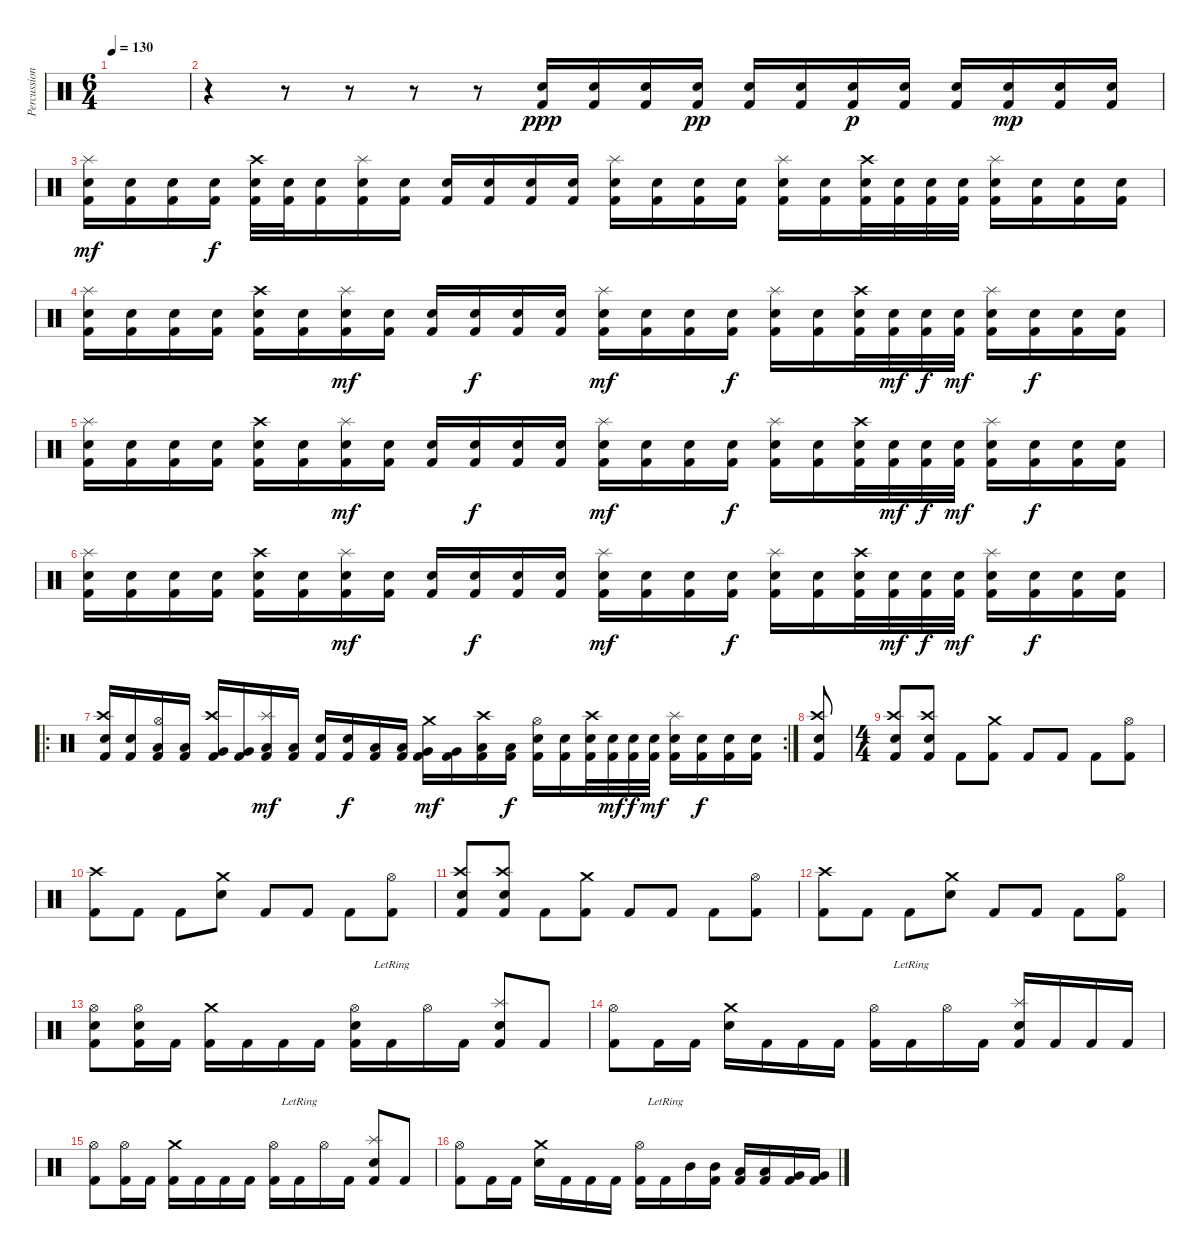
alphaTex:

\track ("Percussion" "Percussion") {instrument percussion}
\staff {score}
\articulation defaults
\ts (6 4)
\tempo 130
\clef neutral
\ks c
|
r.4 r.8 r.8 r.8 r.8 ("Electric Snare (hit)" "Kick (hit) 2").16{dy ppp} ("Electric Snare (hit)" "Kick (hit) 2").16 ("Electric Snare (hit)" "Kick (hit) 2").16 ("Electric Snare (hit)" "Kick (hit) 2").16{dy pp} ("Electric Snare (hit)" "Kick (hit) 2").16 ("Electric Snare (hit)" "Kick (hit) 2").16 ("Electric Snare (hit)" "Kick (hit) 2").16{dy p} ("Electric Snare (hit)" "Kick (hit) 2").16 ("Electric Snare (hit)" "Kick (hit) 2").16 ("Electric Snare (hit)" "Kick (hit) 2").16{dy mp} ("Electric Snare (hit)" "Kick (hit) 2").16 ("Electric Snare (hit)" "Kick (hit) 2").16 |
("Splash (hit)" "Electric Snare (hit)" "Kick (hit) 2").16{dy mf} ("Electric Snare (hit)" "Kick (hit) 2").16 ("Electric Snare (hit)" "Kick (hit) 2").16 ("Electric Snare (hit)" "Kick (hit) 2").16{dy f} ("Electric Snare (hit)" "Crash high (hit)" "Kick (hit) 2").32 ("Electric Snare (hit)" "Kick (hit) 2").32 ("Electric Snare (hit)" "Kick (hit) 2").16 ("Splash (hit)" "Electric Snare (hit)" "Kick (hit) 2").16 ("Electric Snare (hit)" "Kick (hit) 2").16 ("Electric Snare (hit)" "Kick (hit) 2").16 ("Electric Snare (hit)" "Kick (hit) 2").16 ("Electric Snare (hit)" "Kick (hit) 2").16 ("Electric Snare (hit)" "Kick (hit) 2").16 ("Splash (hit)" "Electric Snare (hit)" "Kick (hit) 2").16 ("Electric Snare (hit)" "Kick (hit) 2").16 ("Electric Snare (hit)" "Kick (hit) 2").16 ("Electric Snare (hit)" "Kick (hit) 2").16 ("Splash (hit)" "Electric Snare (hit)" "Kick (hit) 2").16 ("Electric Snare (hit)" "Kick (hit) 2").16 ("Electric Snare (hit)" "Crash high (hit)" "Kick (hit) 2").32 ("Electric Snare (hit)" "Kick (hit) 2").32 ("Electric Snare (hit)" "Kick (hit) 2").32 ("Electric Snare (hit)" "Kick (hit) 2").32 ("Splash (hit)" "Electric Snare (hit)" "Kick (hit) 2").16 ("Electric Snare (hit)" "Kick (hit) 2").16 ("Electric Snare (hit)" "Kick (hit) 2").16 ("Electric Snare (hit)" "Kick (hit) 2").16 |
("Splash (hit)" "Electric Snare (hit)" "Kick (hit) 2").16 ("Electric Snare (hit)" "Kick (hit) 2").16 ("Electric Snare (hit)" "Kick (hit) 2").16 ("Electric Snare (hit)" "Kick (hit) 2").16 ("Electric Snare (hit)" "Crash high (hit)" "Kick (hit) 2").16 ("Electric Snare (hit)" "Kick (hit) 2").16 ("Splash (hit)" "Electric Snare (hit)" "Kick (hit) 2").16{dy mf} ("Electric Snare (hit)" "Kick (hit) 2").16 ("Electric Snare (hit)" "Kick (hit) 2").16 ("Electric Snare (hit)" "Kick (hit) 2").16{dy f} ("Electric Snare (hit)" "Kick (hit) 2").16 ("Electric Snare (hit)" "Kick (hit) 2").16 ("Splash (hit)" "Electric Snare (hit)" "Kick (hit) 2").16{dy mf} ("Electric Snare (hit)" "Kick (hit) 2").16 ("Electric Snare (hit)" "Kick (hit) 2").16 ("Electric Snare (hit)" "Kick (hit) 2").16{dy f} ("Splash (hit)" "Electric Snare (hit)" "Kick (hit) 2").16 ("Electric Snare (hit)" "Kick (hit) 2").16 ("Electric Snare (hit)" "Crash high (hit)" "Kick (hit) 2").32 ("Electric Snare (hit)" "Kick (hit) 2").32{dy mf} ("Electric Snare (hit)" "Kick (hit) 2").32{dy f} ("Electric Snare (hit)" "Kick (hit) 2").32{dy mf} ("Splash (hit)" "Electric Snare (hit)" "Kick (hit) 2").16 ("Electric Snare (hit)" "Kick (hit) 2").16{dy f} ("Electric Snare (hit)" "Kick (hit) 2").16 ("Electric Snare (hit)" "Kick (hit) 2").16 |
("Splash (hit)" "Electric Snare (hit)" "Kick (hit) 2").16 ("Electric Snare (hit)" "Kick (hit) 2").16 ("Electric Snare (hit)" "Kick (hit) 2").16 ("Electric Snare (hit)" "Kick (hit) 2").16 ("Electric Snare (hit)" "Crash high (hit)" "Kick (hit) 2").16 ("Electric Snare (hit)" "Kick (hit) 2").16 ("Splash (hit)" "Electric Snare (hit)" "Kick (hit) 2").16{dy mf} ("Electric Snare (hit)" "Kick (hit) 2").16 ("Electric Snare (hit)" "Kick (hit) 2").16 ("Electric Snare (hit)" "Kick (hit) 2").16{dy f} ("Electric Snare (hit)" "Kick (hit) 2").16 ("Electric Snare (hit)" "Kick (hit) 2").16 ("Splash (hit)" "Electric Snare (hit)" "Kick (hit) 2").16{dy mf} ("Electric Snare (hit)" "Kick (hit) 2").16 ("Electric Snare (hit)" "Kick (hit) 2").16 ("Electric Snare (hit)" "Kick (hit) 2").16{dy f} ("Splash (hit)" "Electric Snare (hit)" "Kick (hit) 2").16 ("Electric Snare (hit)" "Kick (hit) 2").16 ("Electric Snare (hit)" "Crash high (hit)" "Kick (hit) 2").32 ("Electric Snare (hit)" "Kick (hit) 2").32{dy mf} ("Electric Snare (hit)" "Kick (hit) 2").32{dy f} ("Electric Snare (hit)" "Kick (hit) 2").32{dy mf} ("Splash (hit)" "Electric Snare (hit)" "Kick (hit) 2").16 ("Electric Snare (hit)" "Kick (hit) 2").16{dy f} ("Electric Snare (hit)" "Kick (hit) 2").16 ("Electric Snare (hit)" "Kick (hit) 2").16 |
("Splash (hit)" "Electric Snare (hit)" "Kick (hit) 2").16 ("Electric Snare (hit)" "Kick (hit) 2").16 ("Electric Snare (hit)" "Kick (hit) 2").16 ("Electric Snare (hit)" "Kick (hit) 2").16 ("Electric Snare (hit)" "Crash high (hit)" "Kick (hit) 2").16 ("Electric Snare (hit)" "Kick (hit) 2").16 ("Splash (hit)" "Electric Snare (hit)" "Kick (hit) 2").16{dy mf} ("Electric Snare (hit)" "Kick (hit) 2").16 ("Electric Snare (hit)" "Kick (hit) 2").16 ("Electric Snare (hit)" "Kick (hit) 2").16{dy f} ("Electric Snare (hit)" "Kick (hit) 2").16 ("Electric Snare (hit)" "Kick (hit) 2").16 ("Splash (hit)" "Electric Snare (hit)" "Kick (hit) 2").16{dy mf} ("Electric Snare (hit)" "Kick (hit) 2").16 ("Electric Snare (hit)" "Kick (hit) 2").16 ("Electric Snare (hit)" "Kick (hit) 2").16{dy f} ("Splash (hit)" "Electric Snare (hit)" "Kick (hit) 2").16 ("Electric Snare (hit)" "Kick (hit) 2").16 ("Electric Snare (hit)" "Crash high (hit)" "Kick (hit) 2").32 ("Electric Snare (hit)" "Kick (hit) 2").32{dy mf} ("Electric Snare (hit)" "Kick (hit) 2").32{dy f} ("Electric Snare (hit)" "Kick (hit) 2").32{dy mf} ("Splash (hit)" "Electric Snare (hit)" "Kick (hit) 2").16 ("Electric Snare (hit)" "Kick (hit) 2").16{dy f} ("Electric Snare (hit)" "Kick (hit) 2").16 ("Electric Snare (hit)" "Kick (hit) 2").16 |
\ro
\rc 2
("Crash high (hit)" "Snare (hit) 2" "Kick (hit) 2").16 ("Electric Snare (hit)" "Kick (hit) 2").16 ("Hi-Hat (open)" "Low Tom (hit)" "Kick (hit) 2").16 ("Low Tom (hit)" "Kick (hit) 2").16 ("Very Low Tom (hit)" "Crash high (hit)" "Kick (hit) 2").16 ("Very Low Tom (hit)" "Kick (hit) 2").16 ("Splash (hit)" "Low Floor Tom (hit)" "Kick (hit) 2").16{dy mf} ("Low Floor Tom (hit)" "Kick (hit) 2").16 ("Snare (hit) 2" "Kick (hit) 2").16 ("Electric Snare (hit)" "Kick (hit) 2").16{dy f} ("Low Tom (hit)" "Kick (hit) 2").16 ("Low Tom (hit)" "Kick (hit) 2").16 ("Crash medium (hit)" "Very Low Tom (hit)" "Kick (hit) 2").16{dy mf} ("Very Low Tom (hit)" "Kick (hit) 2").16 ("Crash high (hit)" "Low Floor Tom (hit)" "Kick (hit) 2").16 ("Low Floor Tom (hit)" "Kick (hit) 2").16{dy f} ("Hi-Hat (open)" "Electric Snare (hit)" "Kick (hit) 2").16 ("Electric Snare (hit)" "Kick (hit) 2").16 ("Electric Snare (hit)" "Crash high (hit)" "Kick (hit) 2").32 ("Electric Snare (hit)" "Kick (hit) 2").32{dy mf} ("Electric Snare (hit)" "Kick (hit) 2").32{dy f} ("Electric Snare (hit)" "Kick (hit) 2").32{dy mf} ("Splash (hit)" "Electric Snare (hit)" "Kick (hit) 2").16 ("Electric Snare (hit)" "Kick (hit) 2").16{dy f} ("Electric Snare (hit)" "Kick (hit) 2").16 ("Electric Snare (hit)" "Kick (hit) 2").16 |
("Crash high (hit)" "Snare (hit) 2" "Kick (hit) 2").8 |
\ts (4 4)
("Kick (hit) 2" "Snare (hit) 2" "Crash high (hit)").8 ("Kick (hit) 2" "Snare (hit) 2" "Crash high (hit)").8 "Kick (hit) 2".8 ("Kick (hit) 2" "Crash medium (hit)").8 "Kick (hit) 2".8 "Kick (hit) 2".8 "Kick (hit) 2".8 ("Kick (hit) 2" "Hi-Hat (open)").8 |
("Kick (hit) 2" "Crash high (hit)").8 "Kick (hit) 2".8 "Kick (hit) 2".8 ("Snare (hit) 2" "Crash medium (hit)").8 "Kick (hit) 2".8 "Kick (hit) 2".8 "Kick (hit) 2".8 ("Kick (hit) 2" "Hi-Hat (open)").8 |
("Kick (hit) 2" "Snare (hit) 2" "Crash high (hit)").8 ("Kick (hit) 2" "Snare (hit) 2" "Crash high (hit)").8 "Kick (hit) 2".8 ("Kick (hit) 2" "Crash medium (hit)").8 "Kick (hit) 2".8 "Kick (hit) 2".8 "Kick (hit) 2".8 ("Kick (hit) 2" "Hi-Hat (open)").8 |
("Kick (hit) 2" "Crash high (hit)").8 "Kick (hit) 2".8 "Kick (hit) 2".8 ("Snare (hit) 2" "Crash medium (hit)").8 "Kick (hit) 2".8 "Kick (hit) 2".8 "Kick (hit) 2".8 ("Kick (hit) 2" "Hi-Hat (open)").8 |
("Kick (hit) 2" "Hi-Hat (open)" "Snare (hit) 2").8 ("Kick (hit) 2" "Hi-Hat (open)" "Snare (hit) 2").16 "Kick (hit) 2".16 ("Kick (hit) 2" "Crash medium (hit)").16 "Kick (hit) 2".16 "Kick (hit) 2".16 "Kick (hit) 2".16 ("Kick (hit) 2" "Snare (hit) 2" "Hi-Hat (open)").16 "Kick (hit) 2"{lr}.16 "Hi-Hat (open)".16 "Kick (hit) 2".16 ("Kick (hit) 2" "Snare (hit) 2" "Splash (hit)").8 "Kick (hit) 2".8 |
("Kick (hit) 2" "Hi-Hat (open)").8 "Kick (hit) 2".16 "Kick (hit) 2".16 ("Snare (hit) 2" "Crash medium (hit)").16 "Kick (hit) 2".16 "Kick (hit) 2".16 "Kick (hit) 2".16 ("Kick (hit) 2" "Hi-Hat (open)").16 "Kick (hit) 2"{lr}.16 "Hi-Hat (open)".16 "Kick (hit) 2".16 ("Kick (hit) 2" "Snare (hit) 2" "Splash (hit)").16 "Kick (hit) 2".16 "Kick (hit) 2".16 "Kick (hit) 2".16 |
("Kick (hit) 2" "Hi-Hat (open)").8 ("Kick (hit) 2" "Hi-Hat (open)").16 "Kick (hit) 2".16 ("Kick (hit) 2" "Crash medium (hit)").16 "Kick (hit) 2".16 "Kick (hit) 2".16 "Kick (hit) 2".16 ("Kick (hit) 2" "Hi-Hat (open)").16 "Kick (hit) 2"{lr}.16 "Hi-Hat (open)".16 "Kick (hit) 2".16 ("Kick (hit) 2" "Snare (hit) 2" "Splash (hit)").8 "Kick (hit) 2".8 |
("Kick (hit) 2" "Hi-Hat (open)").8 "Kick (hit) 2".16 "Kick (hit) 2".16 ("Snare (hit) 2" "Crash medium (hit)").16 "Kick (hit) 2".16 "Kick (hit) 2".16 "Kick (hit) 2".16 ("Kick (hit) 2" "Hi-Hat (open)").16 "Kick (hit) 2"{lr}.16 "Mid Tom (hit)".16 ("Kick (hit) 2" "Mid Tom (hit)").16 ("Kick (hit) 2" "Low Tom (hit)").16 ("Kick (hit) 2" "Low Tom (hit)").16 ("Kick (hit) 2" "Very Low Tom (hit)").16 ("Kick (hit) 2" "Very Low Tom (hit)").16
